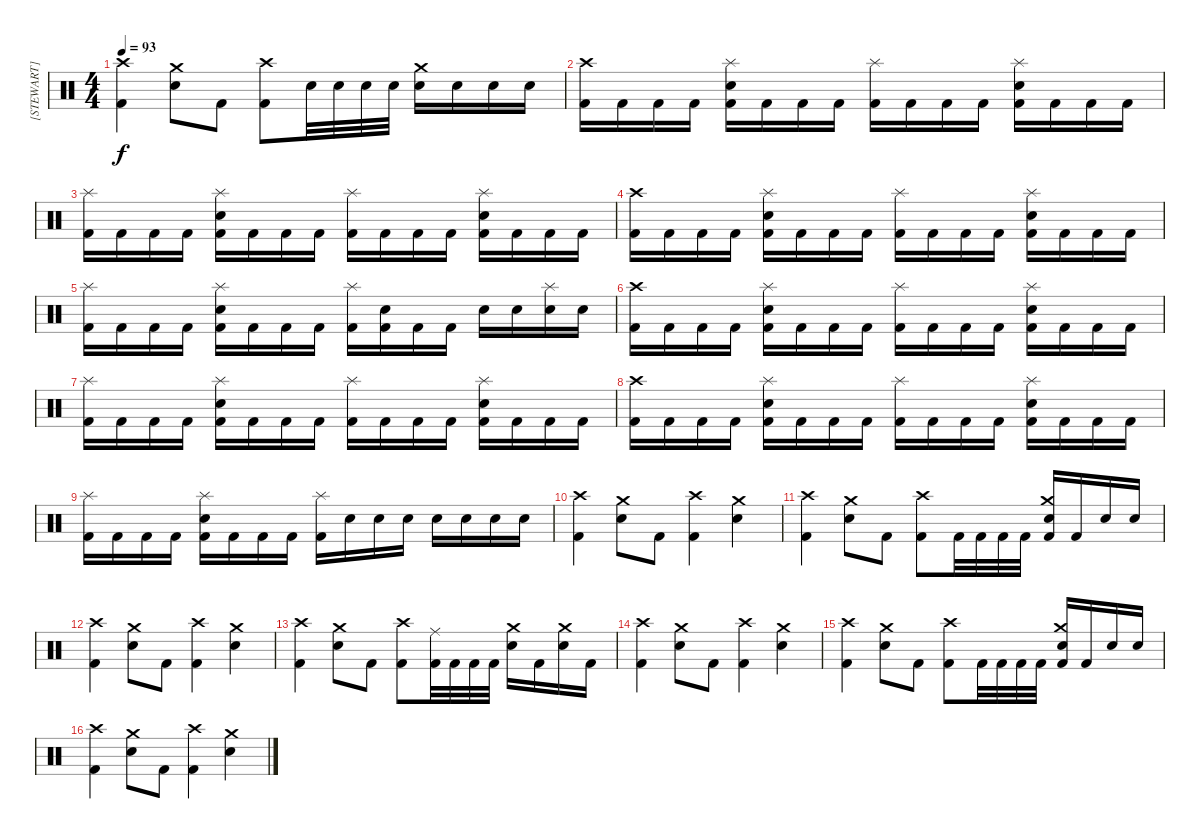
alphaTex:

\track ("[STEWART]" "[STEWART]") {instrument percussion}
\staff {score}
\articulation defaults
\ts (4 4)
\tempo 93
\clef neutral
\ks c
("Crash high (hit)" "Kick (hit) 2").4{dy f} ("Crash medium (hit)" "Electric Snare (hit)").8 "Kick (hit) 2".8 ("Crash high (hit)" "Kick (hit) 2").8 "Electric Snare (hit)".32 "Electric Snare (hit)".32 "Electric Snare (hit)".32 "Electric Snare (hit)".32 ("Crash medium (hit)" "Electric Snare (hit)").16 "Electric Snare (hit)".16 "Electric Snare (hit)".16 "Electric Snare (hit)".16 |
("Crash high (hit)" "Kick (hit) 2").16 "Kick (hit) 2".16 "Kick (hit) 2".16 "Kick (hit) 2".16 ("Splash (hit)" "Electric Snare (hit)" "Kick (hit) 2").16 "Kick (hit) 2".16 "Kick (hit) 2".16 "Kick (hit) 2".16 ("Splash (hit)" "Kick (hit) 2").16 "Kick (hit) 2".16 "Kick (hit) 2".16 "Kick (hit) 2".16 ("Splash (hit)" "Electric Snare (hit)" "Kick (hit) 2").16 "Kick (hit) 2".16 "Kick (hit) 2".16 "Kick (hit) 2".16 |
("Splash (hit)" "Kick (hit) 2").16 "Kick (hit) 2".16 "Kick (hit) 2".16 "Kick (hit) 2".16 ("Splash (hit)" "Electric Snare (hit)" "Kick (hit) 2").16 "Kick (hit) 2".16 "Kick (hit) 2".16 "Kick (hit) 2".16 ("Splash (hit)" "Kick (hit) 2").16 "Kick (hit) 2".16 "Kick (hit) 2".16 "Kick (hit) 2".16 ("Splash (hit)" "Electric Snare (hit)" "Kick (hit) 2").16 "Kick (hit) 2".16 "Kick (hit) 2".16 "Kick (hit) 2".16 |
("Crash high (hit)" "Kick (hit) 2").16 "Kick (hit) 2".16 "Kick (hit) 2".16 "Kick (hit) 2".16 ("Splash (hit)" "Electric Snare (hit)" "Kick (hit) 2").16 "Kick (hit) 2".16 "Kick (hit) 2".16 "Kick (hit) 2".16 ("Splash (hit)" "Kick (hit) 2").16 "Kick (hit) 2".16 "Kick (hit) 2".16 "Kick (hit) 2".16 ("Splash (hit)" "Electric Snare (hit)" "Kick (hit) 2").16 "Kick (hit) 2".16 "Kick (hit) 2".16 "Kick (hit) 2".16 |
("Splash (hit)" "Kick (hit) 2").16 "Kick (hit) 2".16 "Kick (hit) 2".16 "Kick (hit) 2".16 ("Splash (hit)" "Electric Snare (hit)" "Kick (hit) 2").16 "Kick (hit) 2".16 "Kick (hit) 2".16 "Kick (hit) 2".16 ("Splash (hit)" "Kick (hit) 2").16 ("Electric Snare (hit)" "Kick (hit) 2").16 "Kick (hit) 2".16 "Kick (hit) 2".16 "Electric Snare (hit)".16 "Electric Snare (hit)".16 ("Splash (hit)" "Electric Snare (hit)").16 "Electric Snare (hit)".16 |
("Crash high (hit)" "Kick (hit) 2").16 "Kick (hit) 2".16 "Kick (hit) 2".16 "Kick (hit) 2".16 ("Splash (hit)" "Electric Snare (hit)" "Kick (hit) 2").16 "Kick (hit) 2".16 "Kick (hit) 2".16 "Kick (hit) 2".16 ("Splash (hit)" "Kick (hit) 2").16 "Kick (hit) 2".16 "Kick (hit) 2".16 "Kick (hit) 2".16 ("Splash (hit)" "Electric Snare (hit)" "Kick (hit) 2").16 "Kick (hit) 2".16 "Kick (hit) 2".16 "Kick (hit) 2".16 |
("Splash (hit)" "Kick (hit) 2").16 "Kick (hit) 2".16 "Kick (hit) 2".16 "Kick (hit) 2".16 ("Splash (hit)" "Electric Snare (hit)" "Kick (hit) 2").16 "Kick (hit) 2".16 "Kick (hit) 2".16 "Kick (hit) 2".16 ("Splash (hit)" "Kick (hit) 2").16 "Kick (hit) 2".16 "Kick (hit) 2".16 "Kick (hit) 2".16 ("Splash (hit)" "Electric Snare (hit)" "Kick (hit) 2").16 "Kick (hit) 2".16 "Kick (hit) 2".16 "Kick (hit) 2".16 |
("Crash high (hit)" "Kick (hit) 2").16 "Kick (hit) 2".16 "Kick (hit) 2".16 "Kick (hit) 2".16 ("Splash (hit)" "Electric Snare (hit)" "Kick (hit) 2").16 "Kick (hit) 2".16 "Kick (hit) 2".16 "Kick (hit) 2".16 ("Splash (hit)" "Kick (hit) 2").16 "Kick (hit) 2".16 "Kick (hit) 2".16 "Kick (hit) 2".16 ("Splash (hit)" "Electric Snare (hit)" "Kick (hit) 2").16 "Kick (hit) 2".16 "Kick (hit) 2".16 "Kick (hit) 2".16 |
("Splash (hit)" "Kick (hit) 2").16 "Kick (hit) 2".16 "Kick (hit) 2".16 "Kick (hit) 2".16 ("Splash (hit)" "Electric Snare (hit)" "Kick (hit) 2").16 "Kick (hit) 2".16 "Kick (hit) 2".16 "Kick (hit) 2".16 ("Splash (hit)" "Kick (hit) 2").16 "Electric Snare (hit)".16 "Electric Snare (hit)".16 "Electric Snare (hit)".16 "Electric Snare (hit)".16 "Electric Snare (hit)".16 "Electric Snare (hit)".16 "Electric Snare (hit)".16 |
("Crash high (hit)" "Kick (hit) 2").4 ("Crash medium (hit)" "Electric Snare (hit)").8 "Kick (hit) 2".8 ("Crash high (hit)" "Kick (hit) 2").4 ("Crash medium (hit)" "Electric Snare (hit)").4 |
("Crash high (hit)" "Kick (hit) 2").4 ("Crash medium (hit)" "Electric Snare (hit)").8 "Kick (hit) 2".8 ("Crash high (hit)" "Kick (hit) 2").8 "Kick (hit) 2".32 "Kick (hit) 2".32 "Kick (hit) 2".32 "Kick (hit) 2".32 ("Crash medium (hit)" "Electric Snare (hit)" "Kick (hit) 2").16 "Kick (hit) 2".16 "Electric Snare (hit)".16 "Electric Snare (hit)".16 |
("Crash high (hit)" "Kick (hit) 2").4 ("Crash medium (hit)" "Electric Snare (hit)").8 "Kick (hit) 2".8 ("Crash high (hit)" "Kick (hit) 2").4 ("Crash medium (hit)" "Electric Snare (hit)").4 |
("Crash high (hit)" "Kick (hit) 2").4 ("Crash medium (hit)" "Electric Snare (hit)").8 "Kick (hit) 2".8 ("Crash high (hit)" "Kick (hit) 2").8 ("Ride (middle)" "Kick (hit) 2").32 "Kick (hit) 2".32 "Kick (hit) 2".32 "Kick (hit) 2".32 ("Crash medium (hit)" "Electric Snare (hit)").16 "Kick (hit) 2".16 ("Crash medium (hit)" "Electric Snare (hit)").16 "Kick (hit) 2".16 |
("Crash high (hit)" "Kick (hit) 2").4 ("Crash medium (hit)" "Electric Snare (hit)").8 "Kick (hit) 2".8 ("Crash high (hit)" "Kick (hit) 2").4 ("Crash medium (hit)" "Electric Snare (hit)").4 |
("Crash high (hit)" "Kick (hit) 2").4 ("Crash medium (hit)" "Electric Snare (hit)").8 "Kick (hit) 2".8 ("Crash high (hit)" "Kick (hit) 2").8 "Kick (hit) 2".32 "Kick (hit) 2".32 "Kick (hit) 2".32 "Kick (hit) 2".32 ("Crash medium (hit)" "Electric Snare (hit)" "Kick (hit) 2").16 "Kick (hit) 2".16 "Electric Snare (hit)".16 "Electric Snare (hit)".16 |
("Crash high (hit)" "Kick (hit) 2").4 ("Crash medium (hit)" "Electric Snare (hit)").8 "Kick (hit) 2".8 ("Crash high (hit)" "Kick (hit) 2").4 ("Crash medium (hit)" "Electric Snare (hit)").4
